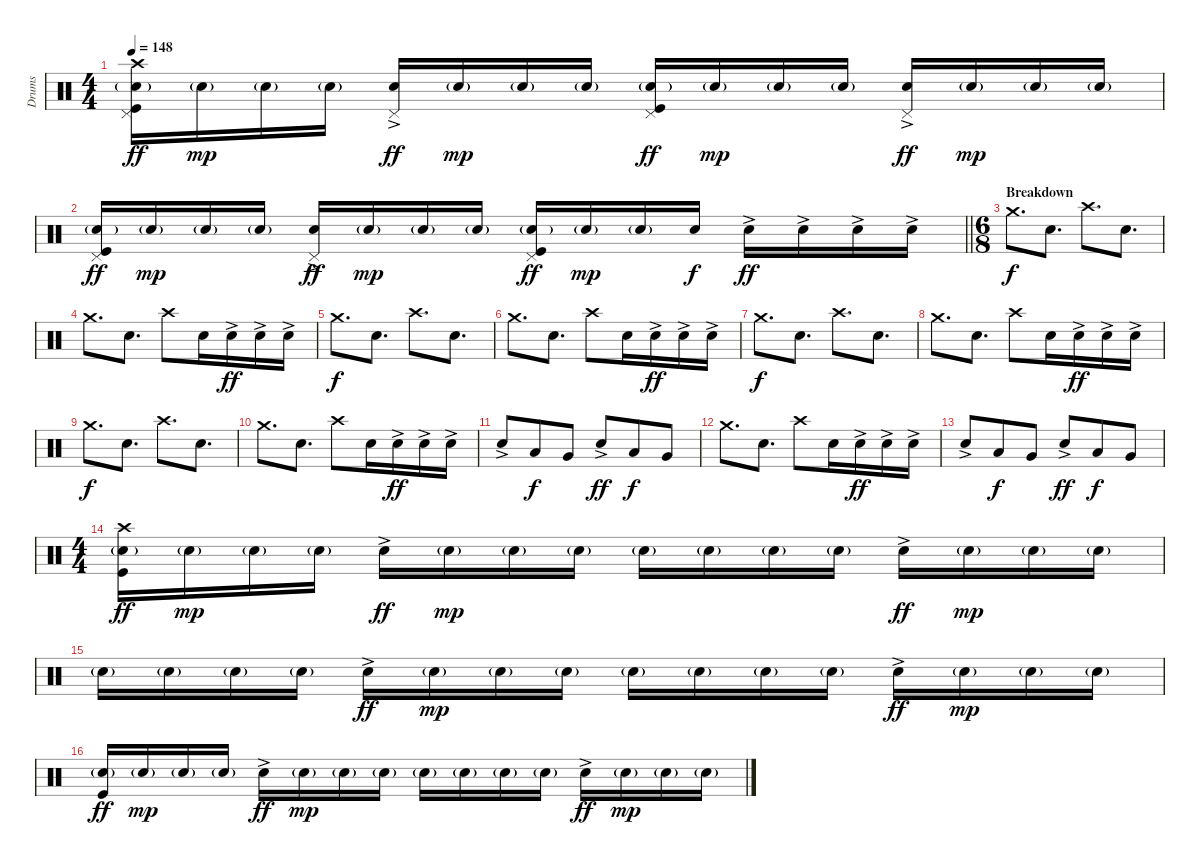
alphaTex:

\track ("Drums" "Drums") {instrument percussion}
\staff {score}
\articulation defaults
\ts (4 4)
\tempo 148
\clef neutral
\ks c
("Crash high (hit)" "Pedal Hi-Hat (hit)" "Snare (hit) 2"{g} "Kick (hit)").16{dy ff} "Snare (hit) 2"{g}.16{dy mp} "Snare (hit) 2"{g}.16 "Snare (hit) 2"{g}.16 ("Pedal Hi-Hat (hit)" "Electric Snare (hit)"{ac}).16{dy ff} "Snare (hit) 2"{g}.16{dy mp} "Snare (hit) 2"{g}.16 "Snare (hit) 2"{g}.16 ("Pedal Hi-Hat (hit)" "Snare (hit) 2"{g} "Kick (hit)").16{dy ff} "Snare (hit) 2"{g}.16{dy mp} "Snare (hit) 2"{g}.16 "Snare (hit) 2"{g}.16 ("Pedal Hi-Hat (hit)" "Electric Snare (hit)"{ac}).16{dy ff} "Snare (hit) 2"{g}.16{dy mp} "Snare (hit) 2"{g}.16 "Snare (hit) 2"{g}.16 |
\barLineRight lightlight
("Pedal Hi-Hat (hit)" "Snare (hit) 2"{g} "Kick (hit)").16{dy ff} "Snare (hit) 2"{g}.16{dy mp} "Snare (hit) 2"{g}.16 "Snare (hit) 2"{g}.16 ("Pedal Hi-Hat (hit)" "Electric Snare (hit)"{ac}).16{dy ff} "Snare (hit) 2"{g}.16{dy mp} "Snare (hit) 2"{g}.16 "Snare (hit) 2"{g}.16 ("Pedal Hi-Hat (hit)" "Snare (hit) 2"{g} "Kick (hit)").16{dy ff} "Snare (hit) 2"{g}.16{dy mp} "Snare (hit) 2"{g}.16 "Electric Snare (hit)".16{dy f} "Electric Snare (hit)"{ac}.16{dy ff} "Electric Snare (hit)"{ac}.16 "Electric Snare (hit)"{ac}.16 "Electric Snare (hit)"{ac}.16 |
\ts (6 8)
\section ("" "Breakdown")
"Crash medium (hit)".8{d dy f} "Electric Snare (hit)".8{d} "Crash high (hit)".8{d} "Electric Snare (hit)".8{d} |
"Crash medium (hit)".8{d} "Electric Snare (hit)".8{d} "Crash high (hit)".8 "Electric Snare (hit)".16 "Electric Snare (hit)"{ac}.16{dy ff} "Electric Snare (hit)"{ac}.16 "Electric Snare (hit)"{ac}.16 |
"Crash medium (hit)".8{d dy f} "Electric Snare (hit)".8{d} "Crash high (hit)".8{d} "Electric Snare (hit)".8{d} |
"Crash medium (hit)".8{d} "Electric Snare (hit)".8{d} "Crash high (hit)".8 "Electric Snare (hit)".16 "Electric Snare (hit)"{ac}.16{dy ff} "Electric Snare (hit)"{ac}.16 "Electric Snare (hit)"{ac}.16 |
"Crash medium (hit)".8{d dy f} "Electric Snare (hit)".8{d} "Crash high (hit)".8{d} "Electric Snare (hit)".8{d} |
"Crash medium (hit)".8{d} "Electric Snare (hit)".8{d} "Crash high (hit)".8 "Electric Snare (hit)".16 "Electric Snare (hit)"{ac}.16{dy ff} "Electric Snare (hit)"{ac}.16 "Electric Snare (hit)"{ac}.16 |
"Crash medium (hit)".8{d dy f} "Electric Snare (hit)".8{d} "Crash high (hit)".8{d} "Electric Snare (hit)".8{d} |
"Crash medium (hit)".8{d} "Electric Snare (hit)".8{d} "Crash high (hit)".8 "Electric Snare (hit)".16 "Electric Snare (hit)"{ac}.16{dy ff} "Electric Snare (hit)"{ac}.16 "Electric Snare (hit)"{ac}.16 |
"Electric Snare (hit)"{ac}.8 "Low Tom (hit)".8{dy f} "Very Low Tom (hit)".8 "Electric Snare (hit)"{ac}.8{dy ff} "Low Tom (hit)".8{dy f} "Very Low Tom (hit)".8 |
"Crash medium (hit)".8{d} "Electric Snare (hit)".8{d} "Crash high (hit)".8 "Electric Snare (hit)".16 "Electric Snare (hit)"{ac}.16{dy ff} "Electric Snare (hit)"{ac}.16 "Electric Snare (hit)"{ac}.16 |
"Electric Snare (hit)"{ac}.8 "Low Tom (hit)".8{dy f} "Very Low Tom (hit)".8 "Electric Snare (hit)"{ac}.8{dy ff} "Low Tom (hit)".8{dy f} "Very Low Tom (hit)".8 |
\ts (4 4)
("Crash high (hit)" "Snare (hit) 2"{g} "Kick (hit)").16{dy ff} "Snare (hit) 2"{g}.16{dy mp} "Snare (hit) 2"{g}.16 "Snare (hit) 2"{g}.16 "Electric Snare (hit)"{ac}.16{dy ff} "Snare (hit) 2"{g}.16{dy mp} "Snare (hit) 2"{g}.16 "Snare (hit) 2"{g}.16 "Snare (hit) 2"{g}.16 "Snare (hit) 2"{g}.16 "Snare (hit) 2"{g}.16 "Snare (hit) 2"{g}.16 "Electric Snare (hit)"{ac}.16{dy ff} "Snare (hit) 2"{g}.16{dy mp} "Snare (hit) 2"{g}.16 "Snare (hit) 2"{g}.16 |
"Snare (hit) 2"{g}.16 "Snare (hit) 2"{g}.16 "Snare (hit) 2"{g}.16 "Snare (hit) 2"{g}.16 "Electric Snare (hit)"{ac}.16{dy ff} "Snare (hit) 2"{g}.16{dy mp} "Snare (hit) 2"{g}.16 "Snare (hit) 2"{g}.16 "Snare (hit) 2"{g}.16 "Snare (hit) 2"{g}.16 "Snare (hit) 2"{g}.16 "Snare (hit) 2"{g}.16 "Electric Snare (hit)"{ac}.16{dy ff} "Snare (hit) 2"{g}.16{dy mp} "Snare (hit) 2"{g}.16 "Snare (hit) 2"{g}.16 |
("Snare (hit) 2"{g} "Kick (hit)").16{dy ff} "Snare (hit) 2"{g}.16{dy mp} "Snare (hit) 2"{g}.16 "Snare (hit) 2"{g}.16 "Electric Snare (hit)"{ac}.16{dy ff} "Snare (hit) 2"{g}.16{dy mp} "Snare (hit) 2"{g}.16 "Snare (hit) 2"{g}.16 "Snare (hit) 2"{g}.16 "Snare (hit) 2"{g}.16 "Snare (hit) 2"{g}.16 "Snare (hit) 2"{g}.16 "Electric Snare (hit)"{ac}.16{dy ff} "Snare (hit) 2"{g}.16{dy mp} "Snare (hit) 2"{g}.16 "Snare (hit) 2"{g}.16
